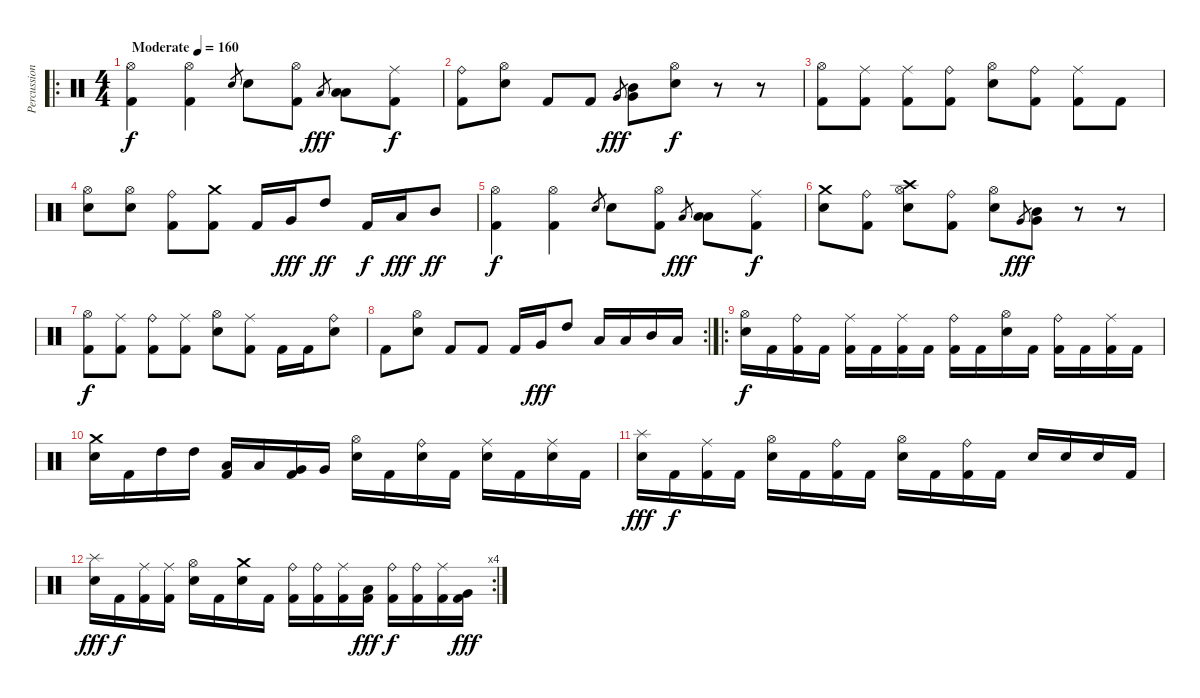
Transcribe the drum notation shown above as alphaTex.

\track ("Percussion" "Percussion") {instrument percussion}
\staff {score}
\articulation defaults
\ro
\ts (4 4)
\tempo (160 "Moderate")
\clef neutral
\ks c
("Hi-Hat (open)" "Kick (hit) 2").4{dy f} ("Hi-Hat (open)" "Kick (hit) 2").4 "Electric Snare (hit)".8{gr} "Electric Snare (hit)".8 ("Hi-Hat (open)" "Kick (hit) 2").8 "Low Floor Tom (hit)".8{gr dy fff} ("Low Floor Tom (hit)" "Low Tom (hit)").8 ("Ride (middle)" "Kick (hit) 2").8{dy f} |
("Ride (bell)" "Kick (hit) 2").8 ("Hi-Hat (open)" "Electric Snare (hit)").8 "Kick (hit) 2".8 "Kick (hit) 2".8 "Very Low Tom (hit)".8{gr dy fff} ("Very Low Tom (hit)" "Mid Tom (hit)").8 ("Hi-Hat (open)" "Electric Snare (hit)").8{dy f} r.8 r.8 |
("Hi-Hat (open)" "Kick (hit) 2").8 ("Ride (middle)" "Kick (hit) 2").8 ("Ride (middle)" "Kick (hit) 2").8 ("Ride (bell)" "Kick (hit) 2").8 ("Hi-Hat (open)" "Electric Snare (hit)").8 ("Ride (bell)" "Kick (hit) 2").8 ("Ride (middle)" "Kick (hit) 2").8 "Kick (hit) 2".8 |
("Hi-Hat (open)" "Electric Snare (hit)").8 ("Hi-Hat (open)" "Electric Snare (hit)").8 ("Ride (bell)" "Kick (hit) 2").8 ("Crash medium (hit)" "Kick (hit) 2").8 "Kick (hit) 2".16 "Very Low Tom (hit)".16{dy fff} "High Tom (hit)".8{dy ff} "Kick (hit) 2".16{dy f} "Low Floor Tom (hit)".16{dy fff} "Mid Tom (hit)".8{dy ff} |
("Hi-Hat (open)" "Kick (hit) 2").4{dy f} ("Hi-Hat (open)" "Kick (hit) 2").4 "Electric Snare (hit)".8{gr} "Electric Snare (hit)".8 ("Hi-Hat (open)" "Kick (hit) 2").8 "Low Floor Tom (hit)".8{gr dy fff} ("Low Floor Tom (hit)" "Low Tom (hit)").8 ("Ride (middle)" "Kick (hit) 2").8{dy f} |
("Crash medium (hit)" "Electric Snare (hit)").8 ("Ride (bell)" "Kick (hit) 2").8 ("Crash high (hit)" "Hi-Hat (open)" "Electric Snare (hit)").8 ("Ride (bell)" "Kick (hit) 2").8 ("Hi-Hat (open)" "Electric Snare (hit)").8 "Very Low Tom (hit)".8{gr dy fff} ("Very Low Tom (hit)" "Mid Tom (hit)").8 r.8 r.8 |
("Hi-Hat (open)" "Kick (hit) 2").8{dy f} ("Ride (middle)" "Kick (hit) 2").8 ("Ride (bell)" "Kick (hit) 2").8 ("Ride (middle)" "Kick (hit) 2").8 ("Hi-Hat (open)" "Electric Snare (hit)").8 ("Ride (middle)" "Kick (hit) 2").8 "Kick (hit) 2".16 "Kick (hit) 2".16 ("Ride (bell)" "Electric Snare (hit)").8 |
\rc 2 "Kick (hit) 2".8
("Hi-Hat (open)" "Electric Snare (hit)").8 "Kick (hit) 2".8 "Kick (hit) 2".8 "Kick (hit) 2".16 "Very Low Tom (hit)".16{dy fff} "High Tom (hit)".8 "Low Tom (hit)".16 "Low Floor Tom (hit)".16 "Mid Tom (hit)".16 "Low Tom (hit)".16 |
\ro
("Hi-Hat (open)" "Electric Snare (hit)").16{dy f} "Kick (hit) 2".16 ("Ride (bell)" "Kick (hit) 2").16 "Kick (hit) 2".16 ("Ride (middle)" "Kick (hit) 2").16 "Kick (hit) 2".16 ("Ride (middle)" "Kick (hit) 2").16 "Kick (hit) 2".16 ("Ride (bell)" "Kick (hit) 2").16 "Kick (hit) 2".16 ("Hi-Hat (open)" "Electric Snare (hit)").16 "Kick (hit) 2".16 ("Ride (bell)" "Kick (hit) 2").16 "Kick (hit) 2".16 ("Ride (middle)" "Kick (hit) 2").16 "Kick (hit) 2".16 |
("Crash medium (hit)" "Electric Snare (hit)").16 "Kick (hit) 2".16 "High Tom (hit)".16 "High Tom (hit)".16 ("Low Tom (hit)" "Kick (hit) 2").16 "Low Tom (hit)".16 ("Very Low Tom (hit)" "Kick (hit) 2").16 "Very Low Tom (hit)".16 ("Hi-Hat (open)" "Electric Snare (hit)").16 "Kick (hit) 2".16 ("Ride (bell)" "Electric Snare (hit)").16 "Kick (hit) 2".16 ("Ride (middle)" "Electric Snare (hit)").16 "Kick (hit) 2".16 ("Ride (middle)" "Electric Snare (hit)").16 "Kick (hit) 2".16 |
("Splash (hit)" "Electric Snare (hit)").16{dy fff} "Kick (hit) 2".16{dy f} ("Ride (middle)" "Kick (hit) 2").16 "Kick (hit) 2".16 ("Hi-Hat (open)" "Electric Snare (hit)").16 "Kick (hit) 2".16 ("Ride (bell)" "Kick (hit) 2").16 "Kick (hit) 2".16 ("Hi-Hat (open)" "Electric Snare (hit)").16 "Kick (hit) 2".16 ("Ride (bell)" "Kick (hit) 2").16 "Kick (hit) 2".16 "Electric Snare (hit)".16 "Electric Snare (hit)".16 "Electric Snare (hit)".16 "Kick (hit) 2".16 |
\rc 4
("Splash (hit)" "Electric Snare (hit)").16{dy fff} "Kick (hit) 2".16{dy f} ("Ride (middle)" "Kick (hit) 2").16 ("Ride (middle)" "Kick (hit) 2").16 ("Hi-Hat (open)" "Electric Snare (hit)").16 "Kick (hit) 2".16 ("Crash medium (hit)" "Electric Snare (hit)").16 "Kick (hit) 2".16 ("Ride (bell)" "Kick (hit) 2").16 ("Ride (bell)" "Kick (hit) 2").16 ("Ride (middle)" "Kick (hit) 2").16 ("Low Tom (hit)" "Kick (hit) 2").16{dy fff} ("Ride (bell)" "Kick (hit) 2").16{dy f} ("Ride (bell)" "Kick (hit) 2").16 ("Ride (middle)" "Kick (hit) 2").16 ("Very Low Tom (hit)" "Kick (hit) 2").16{dy fff}
